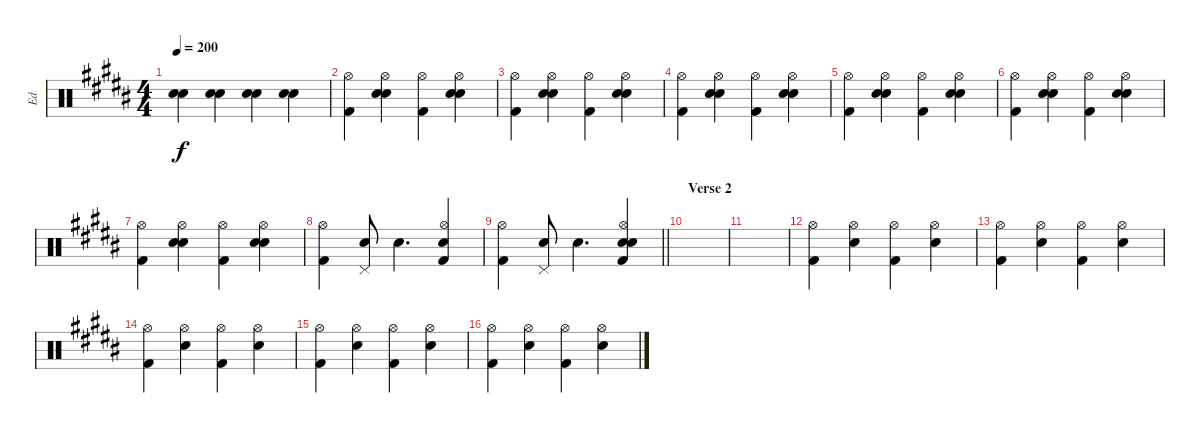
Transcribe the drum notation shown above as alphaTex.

\track ("Ed" "Ed") {instrument percussion bank 127}
\staff {score}
\articulation defaults
\ts (4 4)
\tempo 200
\clef neutral
\ks g#minor
("Electric Snare (hit)" "Electric Snare (hit)").4{dy f} ("Electric Snare (hit)" "Electric Snare (hit)").4 ("Electric Snare (hit)" "Electric Snare (hit)").4 ("Electric Snare (hit)" "Electric Snare (hit)").4 |
("Hi-Hat (open)" "Kick (hit) 2").4 ("Hi-Hat (open)" "Electric Snare (hit)" "Electric Snare (hit)").4 ("Hi-Hat (open)" "Kick (hit) 2").4 ("Hi-Hat (open)" "Electric Snare (hit)" "Electric Snare (hit)").4 |
("Hi-Hat (open)" "Kick (hit) 2").4 ("Hi-Hat (open)" "Electric Snare (hit)" "Electric Snare (hit)").4 ("Hi-Hat (open)" "Kick (hit) 2").4 ("Hi-Hat (open)" "Electric Snare (hit)" "Electric Snare (hit)").4 |
("Hi-Hat (open)" "Kick (hit) 2").4 ("Hi-Hat (open)" "Electric Snare (hit)" "Electric Snare (hit)").4 ("Hi-Hat (open)" "Kick (hit) 2").4 ("Hi-Hat (open)" "Electric Snare (hit)" "Electric Snare (hit)").4 |
("Hi-Hat (open)" "Kick (hit) 2").4 ("Hi-Hat (open)" "Electric Snare (hit)" "Electric Snare (hit)").4 ("Hi-Hat (open)" "Kick (hit) 2").4 ("Hi-Hat (open)" "Electric Snare (hit)" "Electric Snare (hit)").4 |
("Hi-Hat (open)" "Kick (hit) 2").4 ("Hi-Hat (open)" "Electric Snare (hit)" "Electric Snare (hit)").4 ("Hi-Hat (open)" "Kick (hit) 2").4 ("Hi-Hat (open)" "Electric Snare (hit)" "Electric Snare (hit)").4 |
("Hi-Hat (open)" "Kick (hit) 2").4 ("Hi-Hat (open)" "Electric Snare (hit)" "Electric Snare (hit)").4 ("Hi-Hat (open)" "Kick (hit) 2").4 ("Hi-Hat (open)" "Electric Snare (hit)" "Electric Snare (hit)").4 |
("Hi-Hat (open)" "Kick (hit) 2").4 ("Pedal Hi-Hat (hit)" "Electric Snare (hit)").8 "Electric Snare (hit)".4{d} ("Hi-Hat (open)" "Electric Snare (hit)" "Kick (hit) 2").4 |
\barLineRight lightlight
("Hi-Hat (open)" "Kick (hit) 2").4 ("Pedal Hi-Hat (hit)" "Electric Snare (hit)").8 "Electric Snare (hit)".4{d} ("Hi-Hat (open)" "Electric Snare (hit)" "Electric Snare (hit)" "Kick (hit) 2").4 |
\section ("" "Verse 2")
|
|
("Hi-Hat (open)" "Kick (hit) 2").4 ("Hi-Hat (open)" "Electric Snare (hit)").4 ("Hi-Hat (open)" "Kick (hit) 2").4 ("Hi-Hat (open)" "Electric Snare (hit)").4 |
("Hi-Hat (open)" "Kick (hit) 2").4 ("Hi-Hat (open)" "Electric Snare (hit)").4 ("Hi-Hat (open)" "Kick (hit) 2").4 ("Hi-Hat (open)" "Electric Snare (hit)").4 |
("Hi-Hat (open)" "Kick (hit) 2").4 ("Hi-Hat (open)" "Electric Snare (hit)").4 ("Hi-Hat (open)" "Kick (hit) 2").4 ("Hi-Hat (open)" "Electric Snare (hit)").4 |
("Hi-Hat (open)" "Kick (hit) 2").4 ("Hi-Hat (open)" "Electric Snare (hit)").4 ("Hi-Hat (open)" "Kick (hit) 2").4 ("Hi-Hat (open)" "Electric Snare (hit)").4 |
("Hi-Hat (open)" "Kick (hit) 2").4 ("Hi-Hat (open)" "Electric Snare (hit)").4 ("Hi-Hat (open)" "Kick (hit) 2").4 ("Hi-Hat (open)" "Electric Snare (hit)").4
